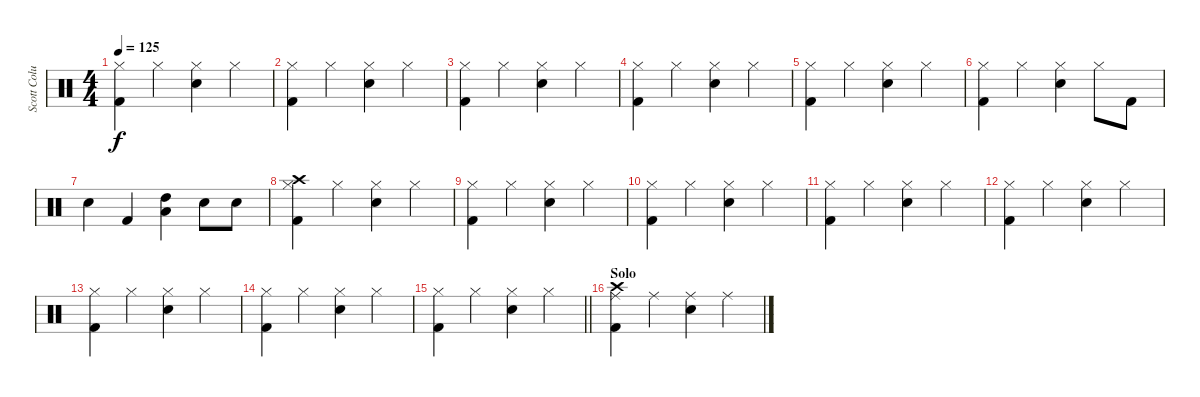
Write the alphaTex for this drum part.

\track ("Scott Columbus" "Scott Colu") {instrument percussion}
\staff {score}
\articulation defaults
\ts (4 4)
\tempo 125
\clef neutral
\ks c
("Hi-Hat (closed)" "Kick (hit) 2").4{dy f} "Hi-Hat (closed)".4 ("Hi-Hat (closed)" "Snare (hit) 2").4 "Hi-Hat (closed)".4 |
("Hi-Hat (closed)" "Kick (hit) 2").4 "Hi-Hat (closed)".4 ("Hi-Hat (closed)" "Snare (hit) 2").4 "Hi-Hat (closed)".4 |
("Hi-Hat (closed)" "Kick (hit) 2").4 "Hi-Hat (closed)".4 ("Hi-Hat (closed)" "Snare (hit) 2").4 "Hi-Hat (closed)".4 |
("Hi-Hat (closed)" "Kick (hit) 2").4 "Hi-Hat (closed)".4 ("Hi-Hat (closed)" "Snare (hit) 2").4 "Hi-Hat (closed)".4 |
("Hi-Hat (closed)" "Kick (hit) 2").4 "Hi-Hat (closed)".4 ("Hi-Hat (closed)" "Snare (hit) 2").4 "Hi-Hat (closed)".4 |
("Hi-Hat (closed)" "Kick (hit) 2").4 "Hi-Hat (closed)".4 ("Hi-Hat (closed)" "Snare (hit) 2").4 "Hi-Hat (closed)".8 "Kick (hit) 2".8 |
"Snare (hit) 2".4 "Kick (hit) 2".4 ("Low Tom (hit)" "High Tom (hit)").4 "Snare (hit) 2".8 "Snare (hit) 2".8 |
("Crash high (hit)" "Hi-Hat (closed)" "Kick (hit) 2").4 "Hi-Hat (closed)".4 ("Hi-Hat (closed)" "Snare (hit) 2").4 "Hi-Hat (closed)".4 |
("Hi-Hat (closed)" "Kick (hit) 2").4 "Hi-Hat (closed)".4 ("Hi-Hat (closed)" "Snare (hit) 2").4 "Hi-Hat (closed)".4 |
("Hi-Hat (closed)" "Kick (hit) 2").4 "Hi-Hat (closed)".4 ("Hi-Hat (closed)" "Snare (hit) 2").4 "Hi-Hat (closed)".4 |
("Hi-Hat (closed)" "Kick (hit) 2").4 "Hi-Hat (closed)".4 ("Hi-Hat (closed)" "Snare (hit) 2").4 "Hi-Hat (closed)".4 |
("Hi-Hat (closed)" "Kick (hit) 2").4 "Hi-Hat (closed)".4 ("Hi-Hat (closed)" "Snare (hit) 2").4 "Hi-Hat (closed)".4 |
("Hi-Hat (closed)" "Kick (hit) 2").4 "Hi-Hat (closed)".4 ("Hi-Hat (closed)" "Snare (hit) 2").4 "Hi-Hat (closed)".4 |
("Hi-Hat (closed)" "Kick (hit) 2").4 "Hi-Hat (closed)".4 ("Hi-Hat (closed)" "Snare (hit) 2").4 "Hi-Hat (closed)".4 |
\barLineRight lightlight
("Hi-Hat (closed)" "Kick (hit) 2").4 "Hi-Hat (closed)".4 ("Hi-Hat (closed)" "Snare (hit) 2").4 "Hi-Hat (closed)".4 |
\section ("" "Solo")
("Crash high (hit)" "Ride (middle)" "Kick (hit) 2").4 "Ride (middle)".4 ("Ride (middle)" "Snare (hit) 2").4 "Ride (middle)".4
